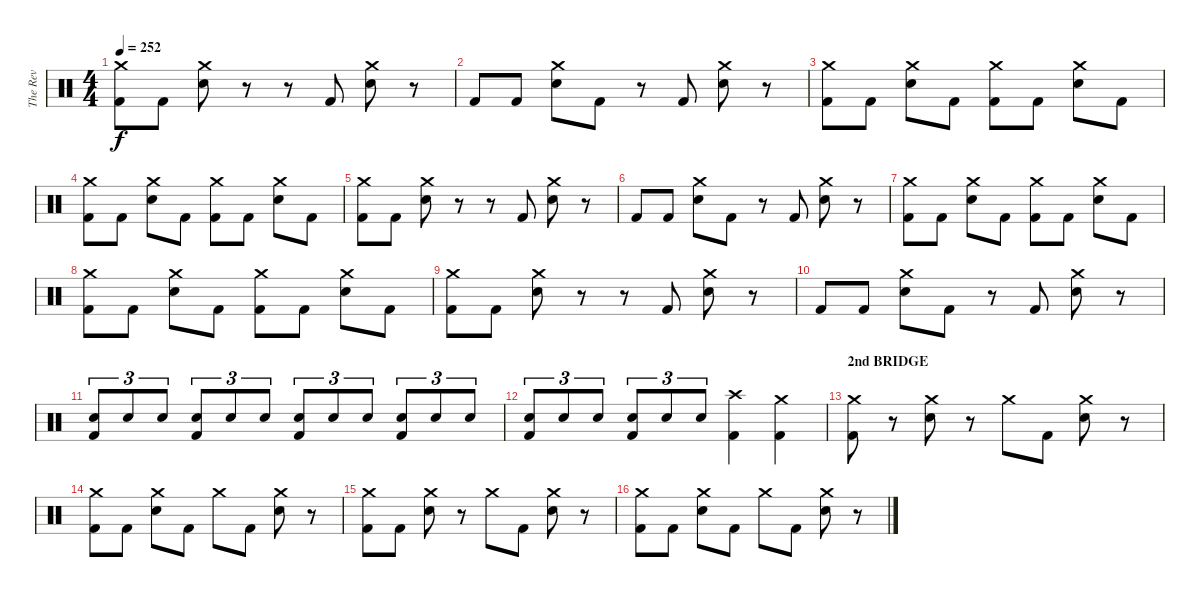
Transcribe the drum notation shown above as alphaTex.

\track ("The Rev" "The Rev") {instrument percussion}
\staff {score}
\articulation defaults
\ts (4 4)
\tempo 252
\clef neutral
\ks c
("Crash medium (hit)" "Kick (hit) 2").8{dy f} "Kick (hit) 2".8 ("Crash medium (hit)" "Electric Snare (hit)").8 r.8 r.8 "Kick (hit) 2".8 ("Crash medium (hit)" "Electric Snare (hit)").8 r.8 |
"Kick (hit) 2".8 "Kick (hit) 2".8 ("Crash medium (hit)" "Electric Snare (hit)").8 "Kick (hit) 2".8 r.8 "Kick (hit) 2".8 ("Crash medium (hit)" "Electric Snare (hit)").8 r.8 |
("Crash medium (hit)" "Kick (hit) 2").8 "Kick (hit) 2".8 ("Crash medium (hit)" "Electric Snare (hit)").8 "Kick (hit) 2".8 ("Crash medium (hit)" "Kick (hit) 2").8 "Kick (hit) 2".8 ("Crash medium (hit)" "Electric Snare (hit)").8 "Kick (hit) 2".8 |
("Crash medium (hit)" "Kick (hit) 2").8 "Kick (hit) 2".8 ("Crash medium (hit)" "Electric Snare (hit)").8 "Kick (hit) 2".8 ("Crash medium (hit)" "Kick (hit) 2").8 "Kick (hit) 2".8 ("Crash medium (hit)" "Electric Snare (hit)").8 "Kick (hit) 2".8 |
("Crash medium (hit)" "Kick (hit) 2").8 "Kick (hit) 2".8 ("Crash medium (hit)" "Electric Snare (hit)").8 r.8 r.8 "Kick (hit) 2".8 ("Crash medium (hit)" "Electric Snare (hit)").8 r.8 |
"Kick (hit) 2".8 "Kick (hit) 2".8 ("Crash medium (hit)" "Electric Snare (hit)").8 "Kick (hit) 2".8 r.8 "Kick (hit) 2".8 ("Crash medium (hit)" "Electric Snare (hit)").8 r.8 |
("Crash medium (hit)" "Kick (hit) 2").8 "Kick (hit) 2".8 ("Crash medium (hit)" "Electric Snare (hit)").8 "Kick (hit) 2".8 ("Crash medium (hit)" "Kick (hit) 2").8 "Kick (hit) 2".8 ("Crash medium (hit)" "Electric Snare (hit)").8 "Kick (hit) 2".8 |
("Crash medium (hit)" "Kick (hit) 2").8 "Kick (hit) 2".8 ("Crash medium (hit)" "Electric Snare (hit)").8 "Kick (hit) 2".8 ("Crash medium (hit)" "Kick (hit) 2").8 "Kick (hit) 2".8 ("Crash medium (hit)" "Electric Snare (hit)").8 "Kick (hit) 2".8 |
("Crash medium (hit)" "Kick (hit) 2").8 "Kick (hit) 2".8 ("Crash medium (hit)" "Electric Snare (hit)").8 r.8 r.8 "Kick (hit) 2".8 ("Crash medium (hit)" "Electric Snare (hit)").8 r.8 |
"Kick (hit) 2".8 "Kick (hit) 2".8 ("Crash medium (hit)" "Electric Snare (hit)").8 "Kick (hit) 2".8 r.8 "Kick (hit) 2".8 ("Crash medium (hit)" "Electric Snare (hit)").8 r.8 |
("Electric Snare (hit)" "Kick (hit) 2").8{tu (3 2)} "Electric Snare (hit)".8{tu (3 2)} "Electric Snare (hit)".8{tu (3 2)} ("Electric Snare (hit)" "Kick (hit) 2").8{tu (3 2)} "Electric Snare (hit)".8{tu (3 2)} "Electric Snare (hit)".8{tu (3 2)} ("Electric Snare (hit)" "Kick (hit) 2").8{tu (3 2)} "Electric Snare (hit)".8{tu (3 2)} "Electric Snare (hit)".8{tu (3 2)} ("Electric Snare (hit)" "Kick (hit) 2").8{tu (3 2)} "Electric Snare (hit)".8{tu (3 2)} "Electric Snare (hit)".8{tu (3 2)} |
("Electric Snare (hit)" "Kick (hit) 2").8{tu (3 2)} "Electric Snare (hit)".8{tu (3 2)} "Electric Snare (hit)".8{tu (3 2)} ("Electric Snare (hit)" "Kick (hit) 2").8{tu (3 2)} "Electric Snare (hit)".8{tu (3 2)} "Electric Snare (hit)".8{tu (3 2)} ("Crash high (hit)" "Kick (hit) 2").4 ("Crash medium (hit)" "Kick (hit) 2").4 |
\section ("" "2nd BRIDGE")
("Crash medium (hit)" "Kick (hit) 2").8 r.8 ("Crash medium (hit)" "Electric Snare (hit)").8 r.8 "Crash medium (hit)".8 "Kick (hit) 2".8 ("Crash medium (hit)" "Electric Snare (hit)").8 r.8 |
("Crash medium (hit)" "Kick (hit) 2").8 "Kick (hit) 2".8 ("Crash medium (hit)" "Electric Snare (hit)").8 "Kick (hit) 2".8 "Crash medium (hit)".8 "Kick (hit) 2".8 ("Crash medium (hit)" "Electric Snare (hit)").8 r.8 |
("Crash medium (hit)" "Kick (hit) 2").8 "Kick (hit) 2".8 ("Crash medium (hit)" "Electric Snare (hit)").8 r.8 "Crash medium (hit)".8 "Kick (hit) 2".8 ("Crash medium (hit)" "Electric Snare (hit)").8 r.8 |
("Crash medium (hit)" "Kick (hit) 2").8 "Kick (hit) 2".8 ("Crash medium (hit)" "Electric Snare (hit)").8 "Kick (hit) 2".8 "Crash medium (hit)".8 "Kick (hit) 2".8 ("Crash medium (hit)" "Electric Snare (hit)").8 r.8
